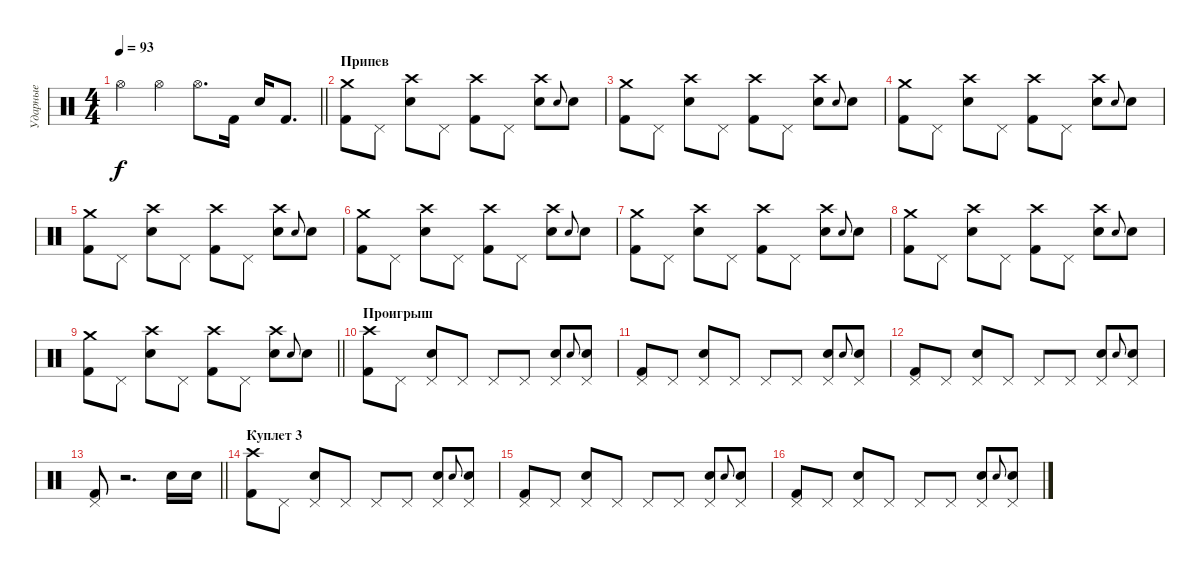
\track ("Ударные" "Ударные") {instrument percussion}
\staff {score}
\articulation defaults
\ts (4 4)
\tempo 93
\clef neutral
\barLineRight lightlight
\ks c "Hi-Hat (open)".4{dy f} "Hi-Hat (open)".4 "Hi-Hat (open)".8{d} "Kick (hit) 2".16 "Electric Snare (hit)".16 "Kick (hit) 2".8{d}
|
\section ("" "Припев")
("Crash medium (hit)" "Kick (hit) 2").8 "Pedal Hi-Hat (hit)".8 ("Crash high (hit)" "Electric Snare (hit)").8 "Pedal Hi-Hat (hit)".8 ("Kick (hit) 2" "Crash high (hit)").8 "Pedal Hi-Hat (hit)".8 ("Electric Snare (hit)" "Crash high (hit)").8 "Electric Snare (hit)".8{gr onbeat} "Electric Snare (hit)".8 |
("Crash medium (hit)" "Kick (hit) 2").8 "Pedal Hi-Hat (hit)".8 ("Crash high (hit)" "Electric Snare (hit)").8 "Pedal Hi-Hat (hit)".8 ("Kick (hit) 2" "Crash high (hit)").8 "Pedal Hi-Hat (hit)".8 ("Electric Snare (hit)" "Crash high (hit)").8 "Electric Snare (hit)".8{gr onbeat} "Electric Snare (hit)".8 |
("Crash medium (hit)" "Kick (hit) 2").8 "Pedal Hi-Hat (hit)".8 ("Crash high (hit)" "Electric Snare (hit)").8 "Pedal Hi-Hat (hit)".8 ("Kick (hit) 2" "Crash high (hit)").8 "Pedal Hi-Hat (hit)".8 ("Electric Snare (hit)" "Crash high (hit)").8 "Electric Snare (hit)".8{gr onbeat} "Electric Snare (hit)".8 |
("Crash medium (hit)" "Kick (hit) 2").8 "Pedal Hi-Hat (hit)".8 ("Crash high (hit)" "Electric Snare (hit)").8 "Pedal Hi-Hat (hit)".8 ("Kick (hit) 2" "Crash high (hit)").8 "Pedal Hi-Hat (hit)".8 ("Electric Snare (hit)" "Crash high (hit)").8 "Electric Snare (hit)".8{gr onbeat} "Electric Snare (hit)".8 |
("Crash medium (hit)" "Kick (hit) 2").8 "Pedal Hi-Hat (hit)".8 ("Crash high (hit)" "Electric Snare (hit)").8 "Pedal Hi-Hat (hit)".8 ("Kick (hit) 2" "Crash high (hit)").8 "Pedal Hi-Hat (hit)".8 ("Electric Snare (hit)" "Crash high (hit)").8 "Electric Snare (hit)".8{gr onbeat} "Electric Snare (hit)".8 |
("Crash medium (hit)" "Kick (hit) 2").8 "Pedal Hi-Hat (hit)".8 ("Crash high (hit)" "Electric Snare (hit)").8 "Pedal Hi-Hat (hit)".8 ("Kick (hit) 2" "Crash high (hit)").8 "Pedal Hi-Hat (hit)".8 ("Electric Snare (hit)" "Crash high (hit)").8 "Electric Snare (hit)".8{gr onbeat} "Electric Snare (hit)".8 |
("Crash medium (hit)" "Kick (hit) 2").8 "Pedal Hi-Hat (hit)".8 ("Crash high (hit)" "Electric Snare (hit)").8 "Pedal Hi-Hat (hit)".8 ("Kick (hit) 2" "Crash high (hit)").8 "Pedal Hi-Hat (hit)".8 ("Electric Snare (hit)" "Crash high (hit)").8 "Electric Snare (hit)".8{gr onbeat} "Electric Snare (hit)".8 |
\barLineRight lightlight
("Crash medium (hit)" "Kick (hit) 2").8 "Pedal Hi-Hat (hit)".8 ("Crash high (hit)" "Electric Snare (hit)").8 "Pedal Hi-Hat (hit)".8 ("Kick (hit) 2" "Crash high (hit)").8 "Pedal Hi-Hat (hit)".8 ("Electric Snare (hit)" "Crash high (hit)").8 "Electric Snare (hit)".8{gr onbeat} "Electric Snare (hit)".8 |
\section ("" "Проигрыш")
("Kick (hit) 2" "Crash high (hit)").8 "Pedal Hi-Hat (hit)".8 ("Pedal Hi-Hat (hit)" "Electric Snare (hit)").8 "Pedal Hi-Hat (hit)".8 "Pedal Hi-Hat (hit)".8 "Pedal Hi-Hat (hit)".8 ("Electric Snare (hit)" "Pedal Hi-Hat (hit)").8 "Electric Snare (hit)".8{gr onbeat} ("Pedal Hi-Hat (hit)" "Electric Snare (hit)").8 |
("Kick (hit) 2" "Pedal Hi-Hat (hit)").8 "Pedal Hi-Hat (hit)".8 ("Pedal Hi-Hat (hit)" "Electric Snare (hit)").8 "Pedal Hi-Hat (hit)".8 "Pedal Hi-Hat (hit)".8 "Pedal Hi-Hat (hit)".8 ("Electric Snare (hit)" "Pedal Hi-Hat (hit)").8 "Electric Snare (hit)".8{gr onbeat} ("Pedal Hi-Hat (hit)" "Electric Snare (hit)").8 |
("Kick (hit) 2" "Pedal Hi-Hat (hit)").8 "Pedal Hi-Hat (hit)".8 ("Pedal Hi-Hat (hit)" "Electric Snare (hit)").8 "Pedal Hi-Hat (hit)".8 "Pedal Hi-Hat (hit)".8 "Pedal Hi-Hat (hit)".8 ("Electric Snare (hit)" "Pedal Hi-Hat (hit)").8 "Electric Snare (hit)".8{gr onbeat} ("Pedal Hi-Hat (hit)" "Electric Snare (hit)").8 |
\barLineRight lightlight
("Kick (hit) 2" "Pedal Hi-Hat (hit)").8 r.2{d} "Electric Snare (hit)".16 "Electric Snare (hit)".16 |
\section ("" "Куплет 3")
("Kick (hit) 2" "Crash high (hit)").8 "Pedal Hi-Hat (hit)".8 ("Pedal Hi-Hat (hit)" "Electric Snare (hit)").8 "Pedal Hi-Hat (hit)".8 "Pedal Hi-Hat (hit)".8 "Pedal Hi-Hat (hit)".8 ("Electric Snare (hit)" "Pedal Hi-Hat (hit)").8 "Electric Snare (hit)".8{gr onbeat} ("Pedal Hi-Hat (hit)" "Electric Snare (hit)").8 |
("Kick (hit) 2" "Pedal Hi-Hat (hit)").8 "Pedal Hi-Hat (hit)".8 ("Pedal Hi-Hat (hit)" "Electric Snare (hit)").8 "Pedal Hi-Hat (hit)".8 "Pedal Hi-Hat (hit)".8 "Pedal Hi-Hat (hit)".8 ("Electric Snare (hit)" "Pedal Hi-Hat (hit)").8 "Electric Snare (hit)".8{gr onbeat} ("Pedal Hi-Hat (hit)" "Electric Snare (hit)").8 |
("Kick (hit) 2" "Pedal Hi-Hat (hit)").8 "Pedal Hi-Hat (hit)".8 ("Pedal Hi-Hat (hit)" "Electric Snare (hit)").8 "Pedal Hi-Hat (hit)".8 "Pedal Hi-Hat (hit)".8 "Pedal Hi-Hat (hit)".8 ("Electric Snare (hit)" "Pedal Hi-Hat (hit)").8 "Electric Snare (hit)".8{gr onbeat} ("Pedal Hi-Hat (hit)" "Electric Snare (hit)").8
